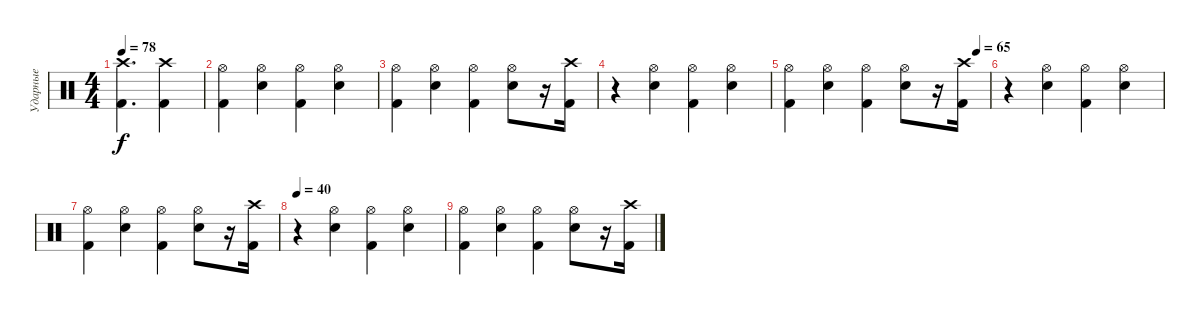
\track ("Ударные" "Ударные") {instrument percussion}
\staff {score}
\articulation defaults
\ts (4 4)
\tempo 78
\clef neutral
\ks c
("Crash high (hit)" "Kick (hit) 2").4{d dy f} ("Crash high (hit)" "Kick (hit) 2").4 |
("Hi-Hat (open)" "Kick (hit) 2").4 ("Hi-Hat (open)" "Snare (hit) 2").4 ("Hi-Hat (open)" "Kick (hit) 2").4 ("Hi-Hat (open)" "Snare (hit) 2").4 |
("Hi-Hat (open)" "Kick (hit) 2").4 ("Hi-Hat (open)" "Snare (hit) 2").4 ("Hi-Hat (open)" "Kick (hit) 2").4 ("Hi-Hat (open)" "Snare (hit) 2").8 r.16 ("Crash high (hit)" "Kick (hit) 2").16 |
r.4 ("Hi-Hat (open)" "Snare (hit) 2").4 ("Hi-Hat (open)" "Kick (hit) 2").4 ("Hi-Hat (open)" "Snare (hit) 2").4 |
\tempo (65 0.9375)
("Hi-Hat (open)" "Kick (hit) 2").4 ("Hi-Hat (open)" "Snare (hit) 2").4 ("Hi-Hat (open)" "Kick (hit) 2").4 ("Hi-Hat (open)" "Snare (hit) 2").8 r.16 ("Crash high (hit)" "Kick (hit) 2").16 |
r.4 ("Hi-Hat (open)" "Snare (hit) 2").4 ("Hi-Hat (open)" "Kick (hit) 2").4 ("Hi-Hat (open)" "Snare (hit) 2").4 |
("Hi-Hat (open)" "Kick (hit) 2").4 ("Hi-Hat (open)" "Snare (hit) 2").4 ("Hi-Hat (open)" "Kick (hit) 2").4 ("Hi-Hat (open)" "Snare (hit) 2").8 r.16 ("Crash high (hit)" "Kick (hit) 2").16 |
\tempo 40
r.4 ("Hi-Hat (open)" "Snare (hit) 2").4 ("Hi-Hat (open)" "Kick (hit) 2").4 ("Hi-Hat (open)" "Snare (hit) 2").4 |
("Hi-Hat (open)" "Kick (hit) 2").4 ("Hi-Hat (open)" "Snare (hit) 2").4 ("Hi-Hat (open)" "Kick (hit) 2").4 ("Hi-Hat (open)" "Snare (hit) 2").8 r.16 ("Crash high (hit)" "Kick (hit) 2").16
